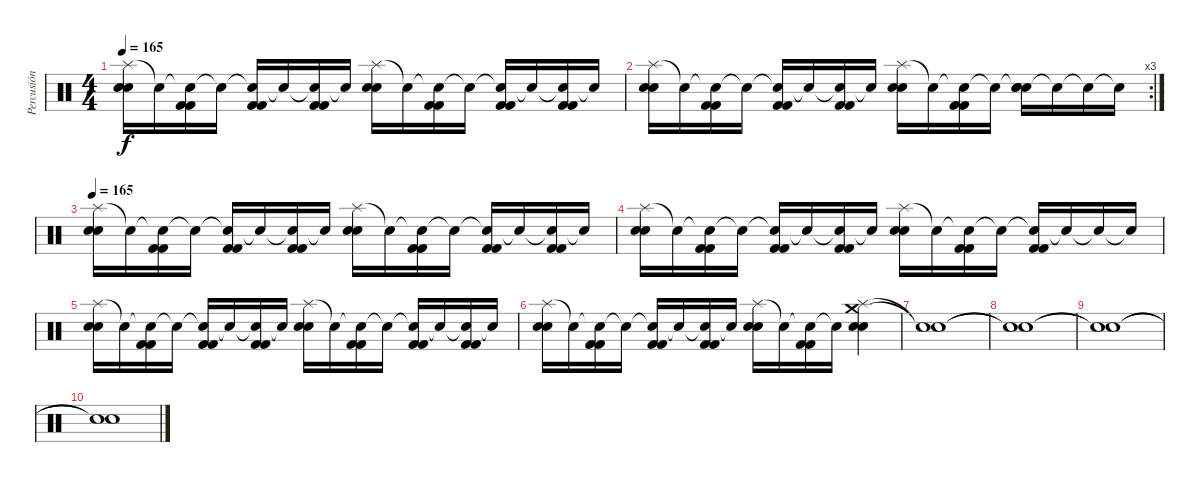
\track ("Percusión" "Percusión") {instrument percussion}
\staff {score}
\articulation defaults
\ts (4 4)
\tempo 165
\clef neutral
\ks c
("Splash (hit)" "Electric Snare (hit)" "Electric Snare (hit)").16{dy f} "Snare (hit)"{t}.16 ("Snare (hit)"{t} "Kick (hit) 2" "Kick (hit) 2").16 "Snare (hit)"{t}.16 ("Snare (hit)"{t} "Kick (hit) 2" "Kick (hit) 2").16 "Snare (hit)"{t}.16 ("Snare (hit)"{t} "Kick (hit) 2" "Kick (hit) 2").16 "Snare (hit)"{t}.16 ("Splash (hit)" "Electric Snare (hit)" "Electric Snare (hit)").16 "Snare (hit)"{t}.16 ("Snare (hit)"{t} "Kick (hit) 2" "Kick (hit) 2").16 "Snare (hit)"{t}.16 ("Snare (hit)"{t} "Kick (hit) 2" "Kick (hit) 2").16 "Snare (hit)"{t}.16 ("Snare (hit)"{t} "Kick (hit) 2" "Kick (hit) 2").16 "Snare (hit)"{t}.16 |
\rc 3
("Splash (hit)" "Electric Snare (hit)" "Electric Snare (hit)").16 "Snare (hit)"{t}.16 ("Snare (hit)"{t} "Kick (hit) 2" "Kick (hit) 2").16 "Snare (hit)"{t}.16 ("Snare (hit)"{t} "Kick (hit) 2" "Kick (hit) 2").16 "Snare (hit)"{t}.16 ("Snare (hit)"{t} "Kick (hit) 2" "Kick (hit) 2").16 "Snare (hit)"{t}.16 ("Splash (hit)" "Electric Snare (hit)" "Electric Snare (hit)").16 "Snare (hit)"{t}.16 ("Snare (hit)"{t} "Kick (hit) 2" "Kick (hit) 2").16 "Snare (hit)"{t}.16 ("Snare (hit)"{t} "Electric Snare (hit)" "Electric Snare (hit)").16 "Snare (hit)"{t}.16 "Snare (hit)"{t}.16 "Snare (hit)"{t}.16 |
\tempo 165
("Splash (hit)" "Electric Snare (hit)" "Electric Snare (hit)").16 "Snare (hit)"{t}.16 ("Snare (hit)"{t} "Kick (hit) 2" "Kick (hit) 2").16 "Snare (hit)"{t}.16 ("Snare (hit)"{t} "Kick (hit) 2" "Kick (hit) 2").16 "Snare (hit)"{t}.16 ("Snare (hit)"{t} "Kick (hit) 2" "Kick (hit) 2").16 "Snare (hit)"{t}.16 ("Splash (hit)" "Electric Snare (hit)" "Electric Snare (hit)").16 "Snare (hit)"{t}.16 ("Snare (hit)"{t} "Kick (hit) 2" "Kick (hit) 2").16 "Snare (hit)"{t}.16 ("Snare (hit)"{t} "Kick (hit) 2" "Kick (hit) 2").16 "Snare (hit)"{t}.16 ("Snare (hit)"{t} "Kick (hit) 2" "Kick (hit) 2").16 "Snare (hit)"{t}.16 |
("Splash (hit)" "Electric Snare (hit)" "Electric Snare (hit)").16 "Snare (hit)"{t}.16 ("Snare (hit)"{t} "Kick (hit) 2" "Kick (hit) 2").16 "Snare (hit)"{t}.16 ("Snare (hit)"{t} "Kick (hit) 2" "Kick (hit) 2").16 "Snare (hit)"{t}.16 ("Snare (hit)"{t} "Kick (hit) 2" "Kick (hit) 2").16 "Snare (hit)"{t}.16 ("Splash (hit)" "Electric Snare (hit)" "Electric Snare (hit)").16 "Snare (hit)"{t}.16 ("Snare (hit)"{t} "Kick (hit) 2" "Kick (hit) 2").16 "Snare (hit)"{t}.16 ("Snare (hit)"{t} "Kick (hit) 2" "Kick (hit) 2").16 "Snare (hit)"{t}.16 "Snare (hit)"{t}.16 "Snare (hit)"{t}.16 |
("Splash (hit)" "Electric Snare (hit)" "Electric Snare (hit)").16 "Snare (hit)"{t}.16 ("Snare (hit)"{t} "Kick (hit) 2" "Kick (hit) 2").16 "Snare (hit)"{t}.16 ("Snare (hit)"{t} "Kick (hit) 2" "Kick (hit) 2").16 "Snare (hit)"{t}.16 ("Snare (hit)"{t} "Kick (hit) 2" "Kick (hit) 2").16 "Snare (hit)"{t}.16 ("Splash (hit)" "Electric Snare (hit)" "Electric Snare (hit)").16 "Snare (hit)"{t}.16 ("Snare (hit)"{t} "Kick (hit) 2" "Kick (hit) 2").16 "Snare (hit)"{t}.16 ("Snare (hit)"{t} "Kick (hit) 2" "Kick (hit) 2").16 "Snare (hit)"{t}.16 ("Snare (hit)"{t} "Kick (hit) 2" "Kick (hit) 2").16 "Snare (hit)"{t}.16 |
("Splash (hit)" "Electric Snare (hit)" "Electric Snare (hit)").16 "Snare (hit)"{t}.16 ("Snare (hit)"{t} "Kick (hit) 2" "Kick (hit) 2").16 "Snare (hit)"{t}.16 ("Snare (hit)"{t} "Kick (hit) 2" "Kick (hit) 2").16 "Snare (hit)"{t}.16 ("Snare (hit)"{t} "Kick (hit) 2" "Kick (hit) 2").16 "Snare (hit)"{t}.16 ("Splash (hit)" "Electric Snare (hit)" "Electric Snare (hit)").16 "Snare (hit)"{t}.16 ("Snare (hit)"{t} "Kick (hit) 2" "Kick (hit) 2").16 "Snare (hit)"{t}.16 ("Splash (hit)" "Crash medium (hit)" "Electric Snare (hit)" "Electric Snare (hit)").4 |
("Snare (hit)"{t} "Snare (hit)"{t}).1 |
("Snare (hit)"{t} "Snare (hit)"{t}).1 |
("Snare (hit)"{t} "Snare (hit)"{t}).1 |
("Snare (hit)"{t} "Snare (hit)"{t}).1
